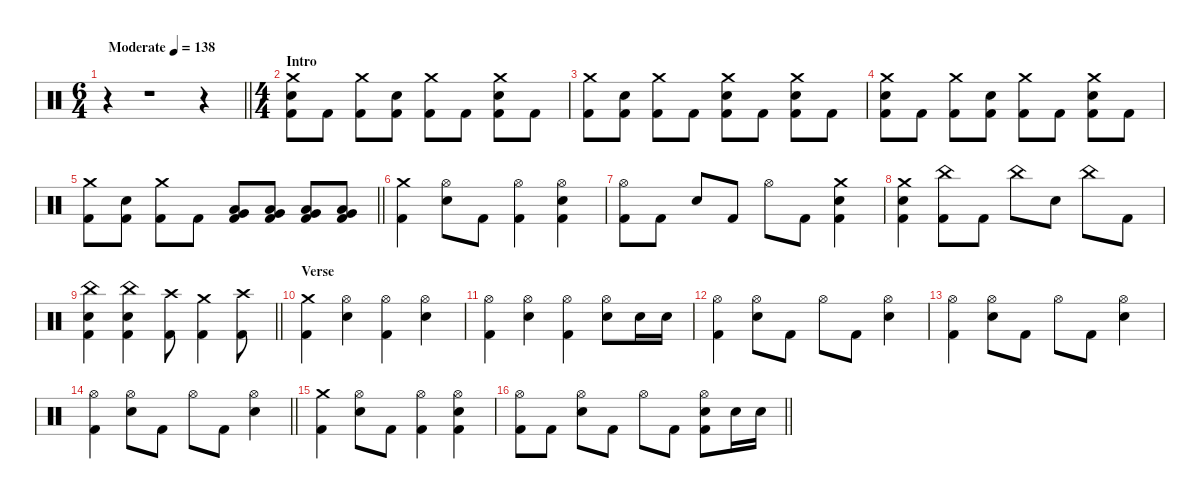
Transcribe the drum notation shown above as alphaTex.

\defaultSystemsLayout 4
\hideDynamics
\bracketExtendMode nobrackets
\singleTrackTrackNamePolicy hidden
\multiTrackTrackNamePolicy hidden
\firstSystemTrackNameMode fullname
\firstSystemTrackNameOrientation horizontal
\otherSystemsTrackNameOrientation horizontal
\track ("Drums" "drm.") {instrument percussion}
\staff {score}
\articulation defaults
\ts (6 4)
\beaming (8 6 6)
\tempo (138 "Moderate")
\clef neutral
\barLineRight lightlight
\ks c
r.4{dy f beam Down} r.1{beam Down} r.4{beam Down} |
\ts (4 4)
\beaming (8 2 2 2 2)
\section ("" "Intro")
("Crash medium (hit)" "Snare (hit) 2" "Kick (hit) 2").8{beam Down} "Kick (hit) 2".8{beam Down} ("Crash medium (hit)" "Kick (hit) 2").8{beam Down} ("Snare (hit) 2" "Kick (hit) 2").8{beam Down} ("Crash medium (hit)" "Kick (hit) 2").8{beam Down} "Kick (hit) 2".8{beam Down} ("Crash medium (hit)" "Snare (hit) 2" "Kick (hit) 2").8{beam Down} "Kick (hit) 2".8{beam Down} |
("Crash medium (hit)" "Kick (hit) 2").8{beam Down} ("Snare (hit) 2" "Kick (hit) 2").8{beam Down} ("Crash medium (hit)" "Kick (hit) 2").8{beam Down} "Kick (hit) 2".8{beam Down} ("Crash medium (hit)" "Snare (hit) 2" "Kick (hit) 2").8{beam Down} "Kick (hit) 2".8{beam Down} ("Crash medium (hit)" "Snare (hit) 2" "Kick (hit) 2").8{beam Down} "Kick (hit) 2".8{beam Down} |
("Crash medium (hit)" "Snare (hit) 2" "Kick (hit) 2").8{beam Down} "Kick (hit) 2".8{beam Down} ("Crash medium (hit)" "Kick (hit) 2").8{beam Down} ("Snare (hit) 2" "Kick (hit) 2").8{beam Down} ("Crash medium (hit)" "Kick (hit) 2").8{beam Down} "Kick (hit) 2".8{beam Down} ("Crash medium (hit)" "Snare (hit) 2" "Kick (hit) 2").8{beam Down} "Kick (hit) 2".8{beam Down} |
\barLineRight lightlight
("Crash medium (hit)" "Kick (hit) 2").8{beam Down} ("Snare (hit) 2" "Kick (hit) 2").8{beam Down} ("Crash medium (hit)" "Kick (hit) 2").8{beam Down} "Kick (hit) 2".8{beam Down} ("Low Tom (hit)" "Very Low Tom (hit)" "Kick (hit) 2").8{beam Up} ("Low Tom (hit)" "Very Low Tom (hit)" "Kick (hit) 2").8{beam Up} ("Low Tom (hit)" "Very Low Tom (hit)" "Kick (hit) 2").8{beam Up} ("Low Tom (hit)" "Very Low Tom (hit)" "Kick (hit) 2").8{beam Up} |
\section ("" "")
("Crash medium (hit)" "Kick (hit) 2").4{beam Down} ("Hi-Hat (open)" "Snare (hit) 2").8{beam Down} "Kick (hit) 2".8{beam Down} ("Hi-Hat (open)" "Kick (hit) 2").4{beam Down} ("Hi-Hat (open)" "Snare (hit) 2" "Kick (hit) 2").4{beam Down} |
("Hi-Hat (open)" "Kick (hit) 2").8{beam Down} "Kick (hit) 2".8{beam Down} "Snare (hit) 2".8{beam Up} "Kick (hit) 2".8{beam Up} "Hi-Hat (open)".8{beam Down} "Kick (hit) 2".8{beam Down} ("Crash medium (hit)" "Snare (hit) 2" "Kick (hit) 2").4{beam Down} |
("Crash medium (hit)" "Snare (hit) 2" "Kick (hit) 2").4{beam Down} ("China (hit)" "Kick (hit) 2").8{beam Down} "Kick (hit) 2".8{beam Down} "China (hit)".8{beam Down} "Snare (hit) 2".8{beam Down} "China (hit)".8{beam Down} "Kick (hit) 2".8{beam Down} |
\barLineRight lightlight
("China (hit)" "Snare (hit) 2" "Kick (hit) 2").4{beam Down} ("China (hit)" "Snare (hit) 2" "Kick (hit) 2").4{beam Down} ("Crash high (hit)" "Kick (hit) 2").8{beam Down} ("Crash medium (hit)" "Kick (hit) 2").4{beam Down} ("Crash high (hit)" "Kick (hit) 2").8{beam Down} |
\section ("" "Verse")
("Crash medium (hit)" "Kick (hit) 2").4{beam Down} ("Hi-Hat (open)" "Snare (hit) 2").4{beam Down} ("Hi-Hat (open)" "Kick (hit) 2").4{beam Down} ("Hi-Hat (open)" "Snare (hit) 2").4{beam Down} |
("Hi-Hat (open)" "Kick (hit) 2").4{beam Down} ("Hi-Hat (open)" "Snare (hit) 2").4{beam Down} ("Hi-Hat (open)" "Kick (hit) 2").4{beam Down} ("Hi-Hat (open)" "Snare (hit) 2").8{beam Down} "Snare (hit) 2".16{beam Down} "Snare (hit) 2".16{beam Down} |
("Hi-Hat (open)" "Kick (hit) 2").4{beam Down} ("Hi-Hat (open)" "Snare (hit) 2").8{beam Down} "Kick (hit) 2".8{beam Down} "Hi-Hat (open)".8{beam Down} "Kick (hit) 2".8{beam Down} ("Hi-Hat (open)" "Snare (hit) 2").4{beam Down} |
("Hi-Hat (open)" "Kick (hit) 2").4{beam Down} ("Hi-Hat (open)" "Snare (hit) 2").8{beam Down} "Kick (hit) 2".8{beam Down} "Hi-Hat (open)".8{beam Down} "Kick (hit) 2".8{beam Down} ("Hi-Hat (open)" "Snare (hit) 2").4{beam Down} |
\barLineRight lightlight
("Hi-Hat (open)" "Kick (hit) 2").4{beam Down} ("Hi-Hat (open)" "Snare (hit) 2").8{beam Down} "Kick (hit) 2".8{beam Down} "Hi-Hat (open)".8{beam Down} "Kick (hit) 2".8{beam Down} ("Hi-Hat (open)" "Snare (hit) 2").4{beam Down} |
\section ("" "")
("Crash medium (hit)" "Kick (hit) 2").4{beam Down} ("Hi-Hat (open)" "Snare (hit) 2").8{beam Down} "Kick (hit) 2".8{beam Down} ("Hi-Hat (open)" "Kick (hit) 2").4{beam Down} ("Hi-Hat (open)" "Snare (hit) 2" "Kick (hit) 2").4{beam Down} |
\barLineRight lightlight
("Hi-Hat (open)" "Kick (hit) 2").8{beam Down} "Kick (hit) 2".8{beam Down} ("Hi-Hat (open)" "Snare (hit) 2").8{beam Down} "Kick (hit) 2".8{beam Down} "Hi-Hat (open)".8{beam Down} "Kick (hit) 2".8{beam Down} ("Hi-Hat (open)" "Snare (hit) 2" "Kick (hit) 2").8{beam Down} "Snare (hit) 2".16{beam Down} "Snare (hit) 2".16{beam Down}
